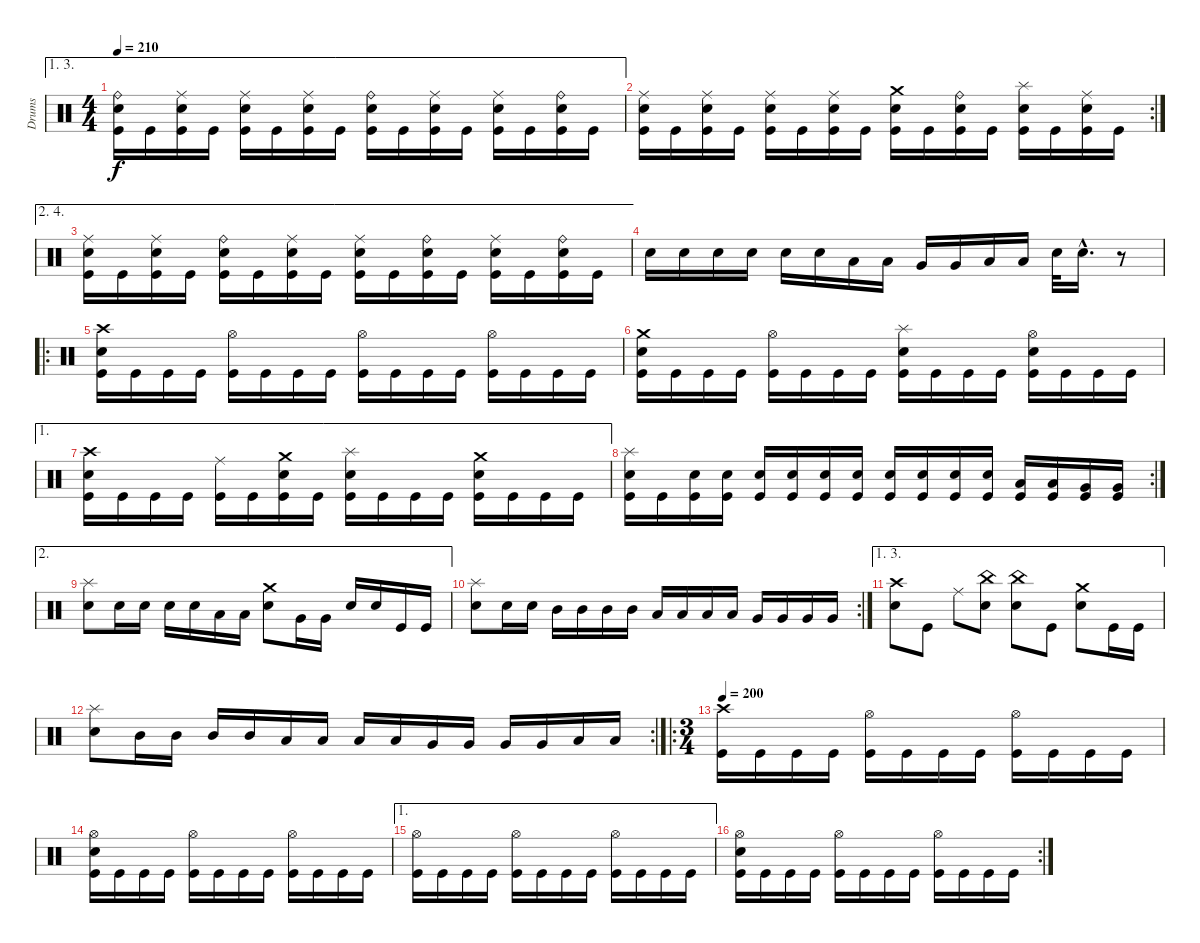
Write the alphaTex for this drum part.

\track ("Drums" "Drums") {instrument percussion}
\staff {score}
\articulation defaults
\ae (1 3)
\ts (4 4)
\tempo 210
\clef neutral
\ks c
("Ride (bell)" "Electric Snare (hit)" "Kick (hit)").16{dy f} "Kick (hit)".16 ("Ride (middle)" "Electric Snare (hit)" "Kick (hit)").16 "Kick (hit)".16 ("Ride (middle)" "Electric Snare (hit)" "Kick (hit)").16 "Kick (hit)".16 ("Ride (middle)" "Electric Snare (hit)" "Kick (hit)").16 "Kick (hit)".16 ("Ride (bell)" "Electric Snare (hit)" "Kick (hit)").16 "Kick (hit)".16 ("Ride (middle)" "Electric Snare (hit)" "Kick (hit)").16 "Kick (hit)".16 ("Ride (middle)" "Electric Snare (hit)" "Kick (hit)").16 "Kick (hit)".16 ("Ride (bell)" "Electric Snare (hit)" "Kick (hit)").16 "Kick (hit)".16 |
\rc 2
("Ride (middle)" "Electric Snare (hit)" "Kick (hit)").16 "Kick (hit)".16 ("Ride (middle)" "Electric Snare (hit)" "Kick (hit)").16 "Kick (hit)".16 ("Ride (middle)" "Electric Snare (hit)" "Kick (hit)").16 "Kick (hit)".16 ("Ride (middle)" "Electric Snare (hit)" "Kick (hit)").16 "Kick (hit)".16 ("Crash medium (hit)" "Electric Snare (hit)" "Kick (hit)").16 "Kick (hit)".16 ("Ride (bell)" "Electric Snare (hit)" "Kick (hit)").16 "Kick (hit)".16 ("Splash (hit)" "Electric Snare (hit)" "Kick (hit)").16 "Kick (hit)".16 ("Ride (middle)" "Electric Snare (hit)" "Kick (hit)").16 "Kick (hit)".16 |
\ae (2 4)
("Ride (middle)" "Electric Snare (hit)" "Kick (hit)").16 "Kick (hit)".16 ("Ride (middle)" "Electric Snare (hit)" "Kick (hit)").16 "Kick (hit)".16 ("Ride (bell)" "Electric Snare (hit)" "Kick (hit)").16 "Kick (hit)".16 ("Ride (middle)" "Electric Snare (hit)" "Kick (hit)").16 "Kick (hit)".16 ("Ride (middle)" "Electric Snare (hit)" "Kick (hit)").16 "Kick (hit)".16 ("Ride (bell)" "Electric Snare (hit)" "Kick (hit)").16 "Kick (hit)".16 ("Ride (middle)" "Electric Snare (hit)" "Kick (hit)").16 "Kick (hit)".16 ("Ride (bell)" "Electric Snare (hit)" "Kick (hit)").16 "Kick (hit)".16 |
"Electric Snare (hit)".16 "Electric Snare (hit)".16 "Electric Snare (hit)".16 "Electric Snare (hit)".16 "Electric Snare (hit)".16 "Electric Snare (hit)".16 "Low Tom (hit)".16 "Low Tom (hit)".16 "Very Low Tom (hit)".16 "Very Low Tom (hit)".16 "Low Floor Tom (hit)".16 "Low Floor Tom (hit)".16 "Electric Snare (hit)".32 "Electric Snare (hit)"{hac}.16{d} r.8 |
\ro
("Crash high (hit)" "Electric Snare (hit)" "Kick (hit)").16 "Kick (hit)".16 "Kick (hit)".16 "Kick (hit)".16 ("Hi-Hat (open)" "Kick (hit)").16 "Kick (hit)".16 "Kick (hit)".16 "Kick (hit)".16 ("Hi-Hat (open)" "Kick (hit)").16 "Kick (hit)".16 "Kick (hit)".16 "Kick (hit)".16 ("Hi-Hat (open)" "Kick (hit)").16 "Kick (hit)".16 "Kick (hit)".16 "Kick (hit)".16 |
("Crash medium (hit)" "Electric Snare (hit)" "Kick (hit)").16 "Kick (hit)".16 "Kick (hit)".16 "Kick (hit)".16 ("Hi-Hat (open)" "Kick (hit)").16 "Kick (hit)".16 "Kick (hit)".16 "Kick (hit)".16 ("Splash (hit)" "Electric Snare (hit)" "Kick (hit)").16 "Kick (hit)".16 "Kick (hit)".16 "Kick (hit)".16 ("Hi-Hat (open)" "Electric Snare (hit)" "Kick (hit)").16 "Kick (hit)".16 "Kick (hit)".16 "Kick (hit)".16 |
\ae 1
("Crash high (hit)" "Electric Snare (hit)" "Kick (hit)").16 "Kick (hit)".16 "Kick (hit)".16 "Kick (hit)".16 ("Ride (middle)" "Kick (hit)").16 "Kick (hit)".16 ("Crash medium (hit)" "Electric Snare (hit)" "Kick (hit)").16 "Kick (hit)".16 ("Splash (hit)" "Electric Snare (hit)" "Kick (hit)").16 "Kick (hit)".16 "Kick (hit)".16 "Kick (hit)".16 ("Crash medium (hit)" "Electric Snare (hit)" "Kick (hit)").16 "Kick (hit)".16 "Kick (hit)".16 "Kick (hit)".16 |
\rc 2
("Splash (hit)" "Electric Snare (hit)" "Kick (hit)").16 "Kick (hit)".16 ("Electric Snare (hit)" "Kick (hit)").16 ("Electric Snare (hit)" "Kick (hit)").16 ("Electric Snare (hit)" "Kick (hit)").16 ("Electric Snare (hit)" "Kick (hit)").16 ("Electric Snare (hit)" "Kick (hit)").16 ("Electric Snare (hit)" "Kick (hit)").16 ("Electric Snare (hit)" "Kick (hit)").16 ("Electric Snare (hit)" "Kick (hit)").16 ("Electric Snare (hit)" "Kick (hit)").16 ("Electric Snare (hit)" "Kick (hit)").16 ("Low Tom (hit)" "Kick (hit)").16 ("Low Tom (hit)" "Kick (hit)").16 ("Very Low Tom (hit)" "Kick (hit)").16 ("Very Low Tom (hit)" "Kick (hit)").16 |
\ae 2
("Splash (hit)" "Electric Snare (hit)").8 "Electric Snare (hit)".16 "Electric Snare (hit)".16 "Electric Snare (hit)".16 "Electric Snare (hit)".16 "Low Tom (hit)".16 "Low Tom (hit)".16 ("Crash medium (hit)" "Electric Snare (hit)").8 "Very Low Tom (hit)".16 "Very Low Tom (hit)".16 "Electric Snare (hit)".16 "Electric Snare (hit)".16 "Kick (hit)".16 "Kick (hit)".16 |
\rc 2
("Splash (hit)" "Electric Snare (hit)").8 "Electric Snare (hit)".16 "Electric Snare (hit)".16 "Mid Tom (hit)".16 "Mid Tom (hit)".16 "Mid Tom (hit)".16 "Mid Tom (hit)".16 "Low Tom (hit)".16 "Low Tom (hit)".16 "Low Tom (hit)".16 "Low Tom (hit)".16 "Very Low Tom (hit)".16 "Very Low Tom (hit)".16 "Very Low Tom (hit)".16 "Very Low Tom (hit)".16 |
\ae (1 3)
("Crash high (hit)" "Electric Snare (hit)").8 "Kick (hit)".8 "Ride (middle)".8 ("China (hit)" "Electric Snare (hit)").8 ("China (hit)" "Electric Snare (hit)").8 "Kick (hit)".8 ("Crash medium (hit)" "Electric Snare (hit)").8 "Kick (hit)".16 "Kick (hit)".16 |
\rc 2
("Splash (hit)" "Electric Snare (hit)").8 "Mid Tom (hit)".16 "Mid Tom (hit)".16 "Mid Tom (hit)".16 "Mid Tom (hit)".16 "Low Tom (hit)".16 "Low Tom (hit)".16 "Low Tom (hit)".16 "Low Tom (hit)".16 "Very Low Tom (hit)".16 "Very Low Tom (hit)".16 "Very Low Tom (hit)".16 "Very Low Tom (hit)".16 "Low Floor Tom (hit)".16 "Low Floor Tom (hit)".16 |
\ro
\ts (3 4)
\tempo 200
("Crash high (hit)" "Kick (hit)").16 "Kick (hit)".16 "Kick (hit)".16 "Kick (hit)".16 ("Hi-Hat (open)" "Kick (hit)").16 "Kick (hit)".16 "Kick (hit)".16 "Kick (hit)".16 ("Hi-Hat (open)" "Kick (hit)").16 "Kick (hit)".16 "Kick (hit)".16 "Kick (hit)".16 |
("Hi-Hat (open)" "Electric Snare (hit)" "Kick (hit)").16 "Kick (hit)".16 "Kick (hit)".16 "Kick (hit)".16 ("Hi-Hat (open)" "Kick (hit)").16 "Kick (hit)".16 "Kick (hit)".16 "Kick (hit)".16 ("Hi-Hat (open)" "Kick (hit)").16 "Kick (hit)".16 "Kick (hit)".16 "Kick (hit)".16 |
\ae 1
("Hi-Hat (open)" "Kick (hit)").16 "Kick (hit)".16 "Kick (hit)".16 "Kick (hit)".16 ("Hi-Hat (open)" "Kick (hit)").16 "Kick (hit)".16 "Kick (hit)".16 "Kick (hit)".16 ("Hi-Hat (open)" "Kick (hit)").16 "Kick (hit)".16 "Kick (hit)".16 "Kick (hit)".16 |
\rc 2
("Hi-Hat (open)" "Electric Snare (hit)" "Kick (hit)").16 "Kick (hit)".16 "Kick (hit)".16 "Kick (hit)".16 ("Hi-Hat (open)" "Kick (hit)").16 "Kick (hit)".16 "Kick (hit)".16 "Kick (hit)".16 ("Hi-Hat (open)" "Kick (hit)").16 "Kick (hit)".16 "Kick (hit)".16 "Kick (hit)".16
